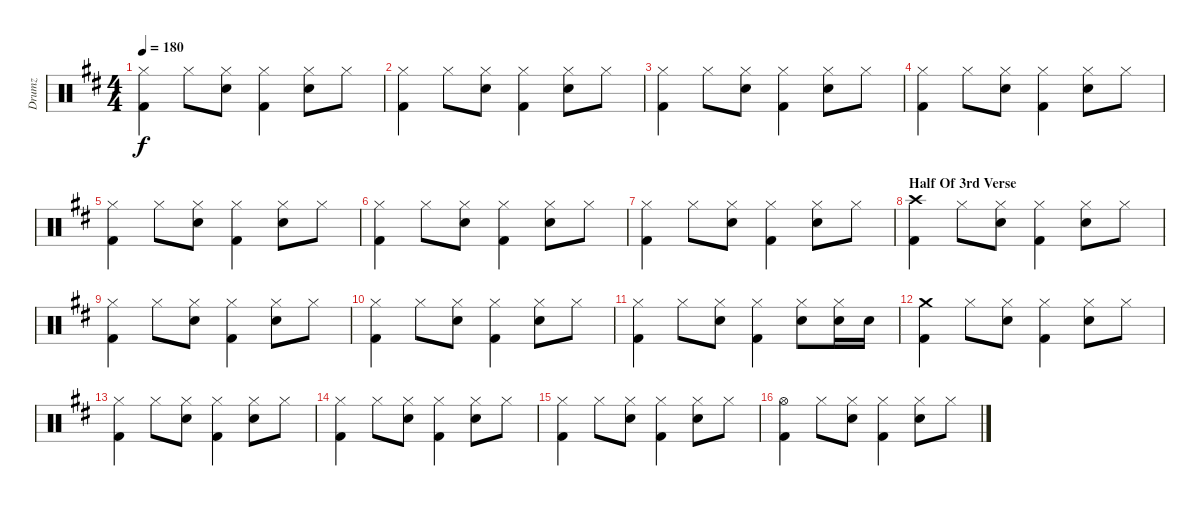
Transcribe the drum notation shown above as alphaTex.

\track ("Drumz" "Drumz") {instrument percussion}
\staff {score}
\articulation defaults
\ts (4 4)
\tempo 180
\clef neutral
\ks d
("Hi-Hat (closed)" "Kick (hit) 2").4{dy f} "Hi-Hat (closed)".8 ("Hi-Hat (closed)" "Snare (hit) 2").8 ("Hi-Hat (closed)" "Kick (hit) 2").4 ("Hi-Hat (closed)" "Snare (hit) 2").8 "Hi-Hat (closed)".8 |
("Hi-Hat (closed)" "Kick (hit) 2").4 "Hi-Hat (closed)".8 ("Hi-Hat (closed)" "Snare (hit) 2").8 ("Hi-Hat (closed)" "Kick (hit) 2").4 ("Hi-Hat (closed)" "Snare (hit) 2").8 "Hi-Hat (closed)".8 |
("Hi-Hat (closed)" "Kick (hit) 2").4 "Hi-Hat (closed)".8 ("Hi-Hat (closed)" "Snare (hit) 2").8 ("Hi-Hat (closed)" "Kick (hit) 2").4 ("Hi-Hat (closed)" "Snare (hit) 2").8 "Hi-Hat (closed)".8 |
("Hi-Hat (closed)" "Kick (hit) 2").4 "Hi-Hat (closed)".8 ("Hi-Hat (closed)" "Snare (hit) 2").8 ("Hi-Hat (closed)" "Kick (hit) 2").4 ("Hi-Hat (closed)" "Snare (hit) 2").8 "Hi-Hat (closed)".8 |
("Hi-Hat (closed)" "Kick (hit) 2").4 "Hi-Hat (closed)".8 ("Hi-Hat (closed)" "Snare (hit) 2").8 ("Hi-Hat (closed)" "Kick (hit) 2").4 ("Hi-Hat (closed)" "Snare (hit) 2").8 "Hi-Hat (closed)".8 |
("Hi-Hat (closed)" "Kick (hit) 2").4 "Hi-Hat (closed)".8 ("Hi-Hat (closed)" "Snare (hit) 2").8 ("Hi-Hat (closed)" "Kick (hit) 2").4 ("Hi-Hat (closed)" "Snare (hit) 2").8 "Hi-Hat (closed)".8 |
("Hi-Hat (closed)" "Kick (hit) 2").4 "Hi-Hat (closed)".8 ("Hi-Hat (closed)" "Snare (hit) 2").8 ("Hi-Hat (closed)" "Kick (hit) 2").4 ("Hi-Hat (closed)" "Snare (hit) 2").8 "Hi-Hat (closed)".8 |
\section ("" "Half Of 3rd Verse")
("Crash high (hit)" "Kick (hit) 2").4 "Hi-Hat (closed)".8 ("Hi-Hat (closed)" "Snare (hit) 2").8 ("Hi-Hat (closed)" "Kick (hit) 2").4 ("Hi-Hat (closed)" "Snare (hit) 2").8 "Hi-Hat (closed)".8 |
("Hi-Hat (closed)" "Kick (hit) 2").4 "Hi-Hat (closed)".8 ("Hi-Hat (closed)" "Snare (hit) 2").8 ("Hi-Hat (closed)" "Kick (hit) 2").4 ("Hi-Hat (closed)" "Snare (hit) 2").8 "Hi-Hat (closed)".8 |
("Hi-Hat (closed)" "Kick (hit) 2").4 "Hi-Hat (closed)".8 ("Hi-Hat (closed)" "Snare (hit) 2").8 ("Hi-Hat (closed)" "Kick (hit) 2").4 ("Hi-Hat (closed)" "Snare (hit) 2").8 "Hi-Hat (closed)".8 |
("Hi-Hat (closed)" "Kick (hit) 2").4 "Hi-Hat (closed)".8 ("Hi-Hat (closed)" "Snare (hit) 2").8 ("Hi-Hat (closed)" "Kick (hit) 2").4 ("Hi-Hat (closed)" "Snare (hit) 2").8 ("Hi-Hat (closed)" "Snare (hit) 2").16 "Snare (hit) 2".16 |
("Crash medium (hit)" "Kick (hit) 2").4 "Hi-Hat (closed)".8 ("Hi-Hat (closed)" "Snare (hit) 2").8 ("Hi-Hat (closed)" "Kick (hit) 2").4 ("Hi-Hat (closed)" "Snare (hit) 2").8 "Hi-Hat (closed)".8 |
("Hi-Hat (closed)" "Kick (hit) 2").4 "Hi-Hat (closed)".8 ("Hi-Hat (closed)" "Snare (hit) 2").8 ("Hi-Hat (closed)" "Kick (hit) 2").4 ("Hi-Hat (closed)" "Snare (hit) 2").8 "Hi-Hat (closed)".8 |
("Hi-Hat (closed)" "Kick (hit) 2").4 "Hi-Hat (closed)".8 ("Hi-Hat (closed)" "Snare (hit) 2").8 ("Hi-Hat (closed)" "Kick (hit) 2").4 ("Hi-Hat (closed)" "Snare (hit) 2").8 "Hi-Hat (closed)".8 |
("Hi-Hat (closed)" "Kick (hit) 2").4 "Hi-Hat (closed)".8 ("Hi-Hat (closed)" "Snare (hit) 2").8 ("Hi-Hat (closed)" "Kick (hit) 2").4 ("Hi-Hat (closed)" "Snare (hit) 2").8 "Hi-Hat (closed)".8 |
("Hi-Hat (open)" "Kick (hit) 2").4 "Hi-Hat (closed)".8 ("Hi-Hat (closed)" "Snare (hit) 2").8 ("Hi-Hat (closed)" "Kick (hit) 2").4 ("Hi-Hat (closed)" "Snare (hit) 2").8 "Hi-Hat (closed)".8
